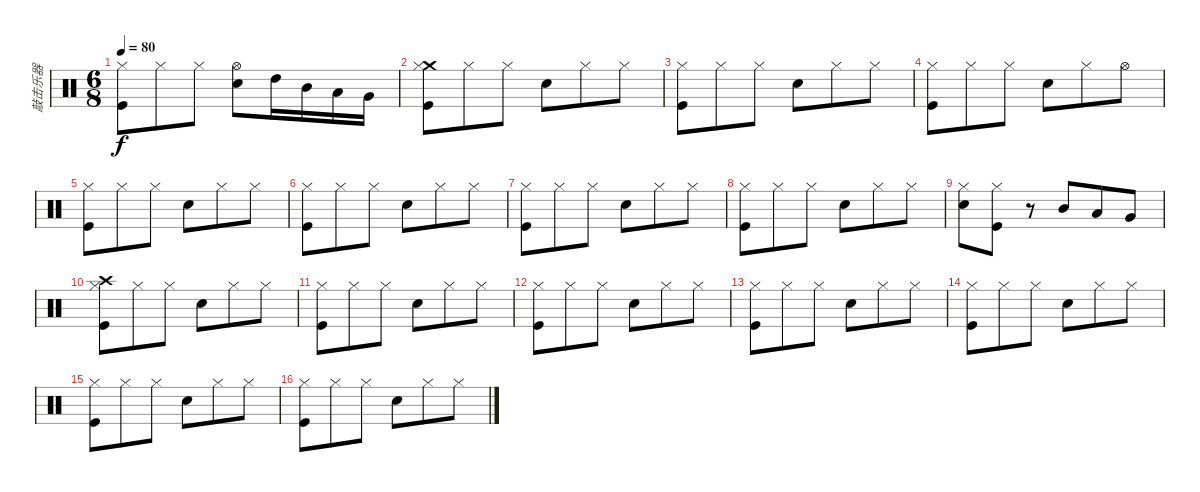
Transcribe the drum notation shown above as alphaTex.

\track ("敲击乐器" "敲击乐器") {instrument percussion}
\staff {score}
\articulation defaults
\ts (6 8)
\tempo 80
\clef neutral
\ks c
("Hi-Hat (closed)" "Kick (hit)").8{dy f} "Hi-Hat (closed)".8 "Hi-Hat (closed)".8 ("Hi-Hat (open)" "Snare (hit) 2").8 "High Tom (hit)".16 "Mid Tom (hit)".16 "Low Tom (hit)".16 "Very Low Tom (hit)".16 |
("Crash medium (hit)" "Hi-Hat (closed)" "Kick (hit)").8 "Hi-Hat (closed)".8 "Hi-Hat (closed)".8 "Snare (hit) 2".8 "Hi-Hat (closed)".8 "Hi-Hat (closed)".8 |
("Hi-Hat (closed)" "Kick (hit)").8 "Hi-Hat (closed)".8 "Hi-Hat (closed)".8 "Snare (hit) 2".8 "Hi-Hat (closed)".8 "Hi-Hat (closed)".8 |
("Hi-Hat (closed)" "Kick (hit)").8 "Hi-Hat (closed)".8 "Hi-Hat (closed)".8 "Snare (hit) 2".8 "Hi-Hat (closed)".8 "Hi-Hat (open)".8 |
("Hi-Hat (closed)" "Kick (hit)").8 "Hi-Hat (closed)".8 "Hi-Hat (closed)".8 "Snare (hit) 2".8 "Hi-Hat (closed)".8 "Hi-Hat (closed)".8 |
("Hi-Hat (closed)" "Kick (hit)").8 "Hi-Hat (closed)".8 "Hi-Hat (closed)".8 "Snare (hit) 2".8 "Hi-Hat (closed)".8 "Hi-Hat (closed)".8 |
("Hi-Hat (closed)" "Kick (hit)").8 "Hi-Hat (closed)".8 "Hi-Hat (closed)".8 "Snare (hit) 2".8 "Hi-Hat (closed)".8 "Hi-Hat (closed)".8 |
("Hi-Hat (closed)" "Kick (hit)").8 "Hi-Hat (closed)".8 "Hi-Hat (closed)".8 "Snare (hit) 2".8 "Hi-Hat (closed)".8 "Hi-Hat (closed)".8 |
("Hi-Hat (closed)" "Snare (hit) 2").8 ("Hi-Hat (closed)" "Kick (hit)").8 r.8 "Mid Tom (hit)".8 "Low Tom (hit)".8 "Very Low Tom (hit)".8 |
("Crash high (hit)" "Hi-Hat (closed)" "Kick (hit)").8 "Hi-Hat (closed)".8 "Hi-Hat (closed)".8 "Snare (hit) 2".8 "Hi-Hat (closed)".8 "Hi-Hat (closed)".8 |
("Hi-Hat (closed)" "Kick (hit)").8 "Hi-Hat (closed)".8 "Hi-Hat (closed)".8 "Snare (hit) 2".8 "Hi-Hat (closed)".8 "Hi-Hat (closed)".8 |
("Hi-Hat (closed)" "Kick (hit)").8 "Hi-Hat (closed)".8 "Hi-Hat (closed)".8 "Snare (hit) 2".8 "Hi-Hat (closed)".8 "Hi-Hat (closed)".8 |
("Hi-Hat (closed)" "Kick (hit)").8 "Hi-Hat (closed)".8 "Hi-Hat (closed)".8 "Snare (hit) 2".8 "Hi-Hat (closed)".8 "Hi-Hat (closed)".8 |
("Hi-Hat (closed)" "Kick (hit)").8 "Hi-Hat (closed)".8 "Hi-Hat (closed)".8 "Snare (hit) 2".8 "Hi-Hat (closed)".8 "Hi-Hat (closed)".8 |
("Hi-Hat (closed)" "Kick (hit)").8 "Hi-Hat (closed)".8 "Hi-Hat (closed)".8 "Snare (hit) 2".8 "Hi-Hat (closed)".8 "Hi-Hat (closed)".8 |
("Hi-Hat (closed)" "Kick (hit)").8 "Hi-Hat (closed)".8 "Hi-Hat (closed)".8 "Snare (hit) 2".8 "Hi-Hat (closed)".8 "Hi-Hat (closed)".8
